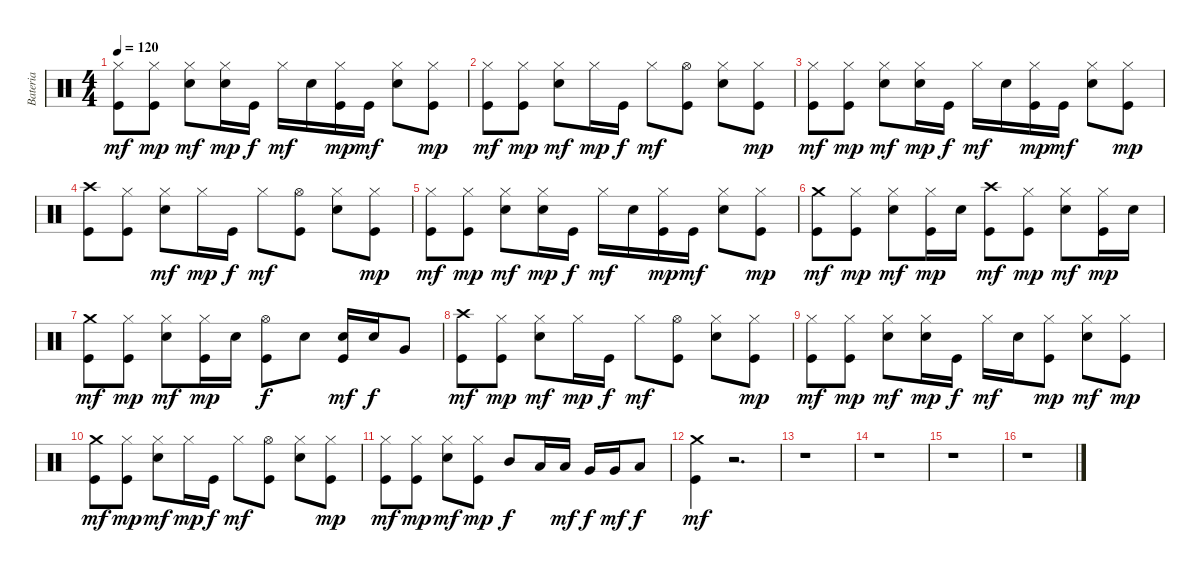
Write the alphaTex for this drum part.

\track ("Bateria" "Bateria") {instrument percussion}
\staff {score}
\articulation defaults
\ts (4 4)
\tempo 120
\clef neutral
\ks c
("Kick (hit)" "Hi-Hat (closed)").8{dy mf} ("Kick (hit)" "Hi-Hat (closed)").8{dy mp} ("Snare (hit) 2" "Hi-Hat (closed)").8{dy mf} ("Snare (hit) 2" "Hi-Hat (closed)").16{dy mp} "Kick (hit)".16{dy f} "Hi-Hat (closed)".16{dy mf} "Snare (hit) 2".16 ("Kick (hit)" "Hi-Hat (closed)").16{dy mp} "Kick (hit)".16{dy mf} ("Snare (hit) 2" "Hi-Hat (closed)").8 ("Kick (hit)" "Hi-Hat (closed)").8{dy mp} |
("Kick (hit)" "Hi-Hat (closed)").8{dy mf} ("Kick (hit)" "Hi-Hat (closed)").8{dy mp} ("Snare (hit) 2" "Hi-Hat (closed)").8{dy mf} "Hi-Hat (closed)".16{dy mp} "Kick (hit)".16{dy f} "Hi-Hat (closed)".8{dy mf} ("Kick (hit)" "Hi-Hat (open)").8 ("Snare (hit) 2" "Hi-Hat (closed)").8 ("Kick (hit)" "Hi-Hat (closed)").8{dy mp} |
("Kick (hit)" "Hi-Hat (closed)").8{dy mf} ("Kick (hit)" "Hi-Hat (closed)").8{dy mp} ("Snare (hit) 2" "Hi-Hat (closed)").8{dy mf} ("Snare (hit) 2" "Hi-Hat (closed)").16{dy mp} "Kick (hit)".16{dy f} "Hi-Hat (closed)".16{dy mf} "Snare (hit) 2".16 ("Kick (hit)" "Hi-Hat (closed)").16{dy mp} "Kick (hit)".16{dy mf} ("Snare (hit) 2" "Hi-Hat (closed)").8 ("Kick (hit)" "Hi-Hat (closed)").8{dy mp} |
("Kick (hit)" "Crash high (hit)").8 ("Kick (hit)" "Hi-Hat (closed)").8 ("Snare (hit) 2" "Hi-Hat (closed)").8{dy mf} "Hi-Hat (closed)".16{dy mp} "Kick (hit)".16{dy f} "Hi-Hat (closed)".8{dy mf} ("Kick (hit)" "Hi-Hat (open)").8 ("Snare (hit) 2" "Hi-Hat (closed)").8 ("Kick (hit)" "Hi-Hat (closed)").8{dy mp} |
("Kick (hit)" "Hi-Hat (closed)").8{dy mf} ("Kick (hit)" "Hi-Hat (closed)").8{dy mp} ("Snare (hit) 2" "Hi-Hat (closed)").8{dy mf} ("Snare (hit) 2" "Hi-Hat (closed)").16{dy mp} "Kick (hit)".16{dy f} "Hi-Hat (closed)".16{dy mf} "Snare (hit) 2".16 ("Kick (hit)" "Hi-Hat (closed)").16{dy mp} "Kick (hit)".16{dy mf} ("Snare (hit) 2" "Hi-Hat (closed)").8 ("Kick (hit)" "Hi-Hat (closed)").8{dy mp} |
("Kick (hit)" "Crash medium (hit)").8{dy mf} ("Kick (hit)" "Hi-Hat (closed)").8{dy mp} ("Snare (hit) 2" "Hi-Hat (closed)").8{dy mf} ("Kick (hit)" "Hi-Hat (closed)").16{dy mp} "Snare (hit) 2".16 ("Kick (hit)" "Crash high (hit)").8{dy mf} ("Kick (hit)" "Hi-Hat (closed)").8{dy mp} ("Snare (hit) 2" "Hi-Hat (closed)").8{dy mf} ("Kick (hit)" "Hi-Hat (closed)").16{dy mp} "Snare (hit) 2".16 |
("Kick (hit)" "Crash medium (hit)").8{dy mf} ("Kick (hit)" "Hi-Hat (closed)").8{dy mp} ("Snare (hit) 2" "Hi-Hat (closed)").8{dy mf} ("Kick (hit)" "Hi-Hat (closed)").16{dy mp} "Snare (hit) 2".16 ("Kick (hit)" "Hi-Hat (open)").8{dy f} "Snare (hit) 2".8 ("Kick (hit)" "Snare (hit) 2").16{dy mf} "Snare (hit) 2".16{dy f} "Very Low Tom (hit)".8 |
("Kick (hit)" "Crash high (hit)").8{dy mf} ("Kick (hit)" "Hi-Hat (closed)").8{dy mp} ("Snare (hit) 2" "Hi-Hat (closed)").8{dy mf} "Hi-Hat (closed)".16{dy mp} "Kick (hit)".16{dy f} "Hi-Hat (closed)".8{dy mf} ("Kick (hit)" "Hi-Hat (open)").8 ("Snare (hit) 2" "Hi-Hat (closed)").8 ("Kick (hit)" "Hi-Hat (closed)").8{dy mp} |
("Kick (hit)" "Hi-Hat (closed)").8{dy mf} ("Kick (hit)" "Hi-Hat (closed)").8{dy mp} ("Snare (hit) 2" "Hi-Hat (closed)").8{dy mf} ("Snare (hit) 2" "Hi-Hat (closed)").16{dy mp} "Kick (hit)".16{dy f} "Hi-Hat (closed)".16{dy mf} "Snare (hit) 2".16 ("Kick (hit)" "Hi-Hat (closed)").8{dy mp} ("Snare (hit) 2" "Hi-Hat (closed)").8{dy mf} ("Kick (hit)" "Hi-Hat (closed)").8{dy mp} |
("Kick (hit)" "Crash medium (hit)").8{dy mf} ("Kick (hit)" "Hi-Hat (closed)").8{dy mp} ("Snare (hit) 2" "Hi-Hat (closed)").8{dy mf} "Hi-Hat (closed)".16{dy mp} "Kick (hit)".16{dy f} "Hi-Hat (closed)".8{dy mf} ("Kick (hit)" "Hi-Hat (open)").8 ("Snare (hit) 2" "Hi-Hat (closed)").8 ("Kick (hit)" "Hi-Hat (closed)").8{dy mp} |
("Kick (hit)" "Hi-Hat (closed)").8{dy mf} ("Kick (hit)" "Hi-Hat (closed)").8{dy mp} ("Snare (hit) 2" "Hi-Hat (closed)").8{dy mf} ("Kick (hit)" "Hi-Hat (closed)").8{dy mp} "Mid Tom (hit)".8{dy f} "Low Tom (hit)".16 "Low Tom (hit)".16{dy mf} "Very Low Tom (hit)".16{dy f} "Very Low Tom (hit)".16{dy mf} "Low Floor Tom (hit)".8{dy f} |
("Kick (hit)" "Crash medium (hit)").4{dy mf} r.2{d} |
r.1 |
r.1 |
r.1 |
r.1
